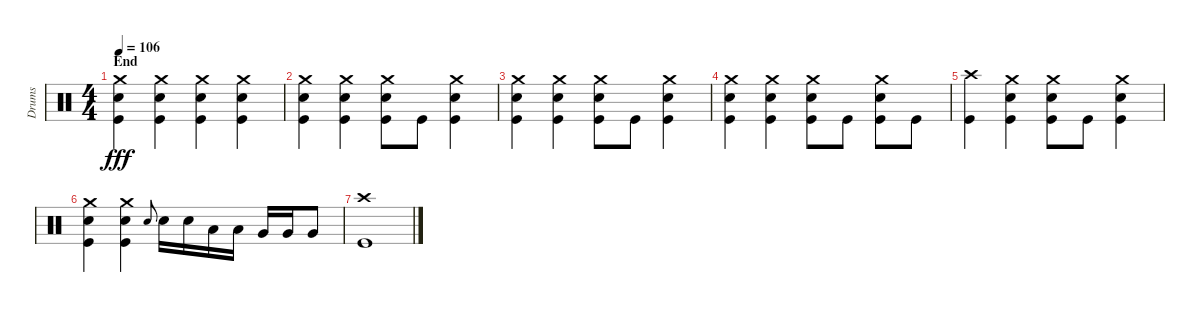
\track ("Drums" "Drums") {instrument percussion}
\staff {score}
\articulation defaults
\ts (4 4)
\section ("" "End")
\tempo 106
\clef neutral
\ks c
("Crash medium (hit)" "Snare (hit) 2" "Kick (hit)").4{dy fff} ("Crash medium (hit)" "Snare (hit) 2" "Kick (hit)").4 ("Crash medium (hit)" "Snare (hit) 2" "Kick (hit)").4 ("Crash medium (hit)" "Snare (hit) 2" "Kick (hit)").4 |
("Crash medium (hit)" "Snare (hit) 2" "Kick (hit)").4 ("Crash medium (hit)" "Snare (hit) 2" "Kick (hit)").4 ("Crash medium (hit)" "Snare (hit) 2" "Kick (hit)").8 "Kick (hit)".8 ("Crash medium (hit)" "Snare (hit) 2" "Kick (hit)").4 |
("Crash medium (hit)" "Snare (hit) 2" "Kick (hit)").4 ("Crash medium (hit)" "Snare (hit) 2" "Kick (hit)").4 ("Crash medium (hit)" "Snare (hit) 2" "Kick (hit)").8 "Kick (hit)".8 ("Crash medium (hit)" "Snare (hit) 2" "Kick (hit)").4 |
("Crash medium (hit)" "Snare (hit) 2" "Kick (hit)").4 ("Crash medium (hit)" "Snare (hit) 2" "Kick (hit)").4 ("Crash medium (hit)" "Snare (hit) 2" "Kick (hit)").8 "Kick (hit)".8 ("Crash medium (hit)" "Snare (hit) 2" "Kick (hit)").8 "Kick (hit)".8 |
("Crash high (hit)" "Kick (hit)").4 ("Crash medium (hit)" "Snare (hit) 2" "Kick (hit)").4 ("Crash medium (hit)" "Snare (hit) 2" "Kick (hit)").8 "Kick (hit)".8 ("Crash medium (hit)" "Snare (hit) 2" "Kick (hit)").4 |
("Crash medium (hit)" "Snare (hit) 2" "Kick (hit)").4 ("Crash medium (hit)" "Snare (hit) 2" "Kick (hit)").4 "Snare (hit) 2".8{gr onbeat} "Snare (hit) 2".16 "Snare (hit) 2".16 "Low Tom (hit)".16 "Low Tom (hit)".16 "Very Low Tom (hit)".16 "Very Low Tom (hit)".16 "Very Low Tom (hit)".8 |
("Crash high (hit)" "Kick (hit)").1
